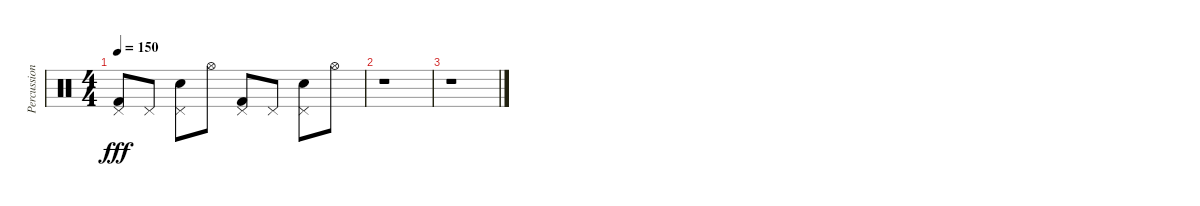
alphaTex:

\track ("Percussions" "Percussion") {instrument percussion}
\staff {score}
\articulation defaults
\ts (4 4)
\tempo 150
\clef neutral
\ks c
("Pedal Hi-Hat (hit)" "Kick (hit) 2").8{dy fff} "Pedal Hi-Hat (hit)".8 ("Pedal Hi-Hat (hit)" "Electric Snare (hit)").8 "Hi-Hat (open)".8 ("Pedal Hi-Hat (hit)" "Kick (hit) 2").8 "Pedal Hi-Hat (hit)".8 ("Pedal Hi-Hat (hit)" "Electric Snare (hit)").8 "Hi-Hat (open)".8 |
r.1 |
r.1
